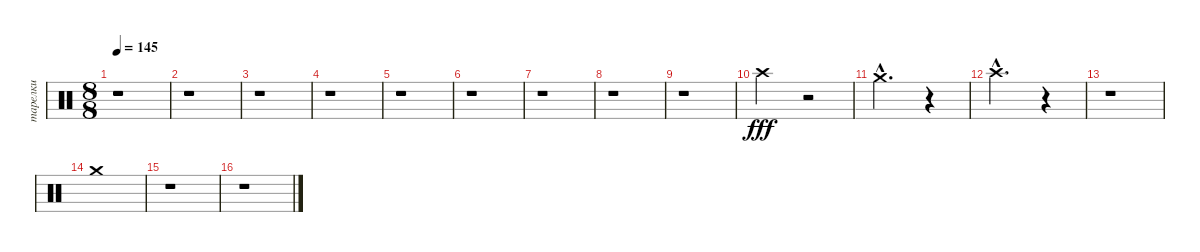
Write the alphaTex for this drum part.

\track ("тарелки" "тарелки") {instrument percussion}
\staff {score}
\articulation defaults
\ts (8 8)
\tempo 145
\clef neutral
\ks c
r.1{dy f} |
r.1 |
r.1 |
r.1 |
r.1 |
r.1 |
r.1 |
r.1 |
r.1 |
"Crash high (hit)".2{dy fff} r.2 |
"Crash medium (hit)"{hac}.2{d} r.4 |
"Crash high (hit)"{hac}.2{d} r.4 |
r.1 |
"Crash medium (hit)".1 |
r.1 |
r.1
